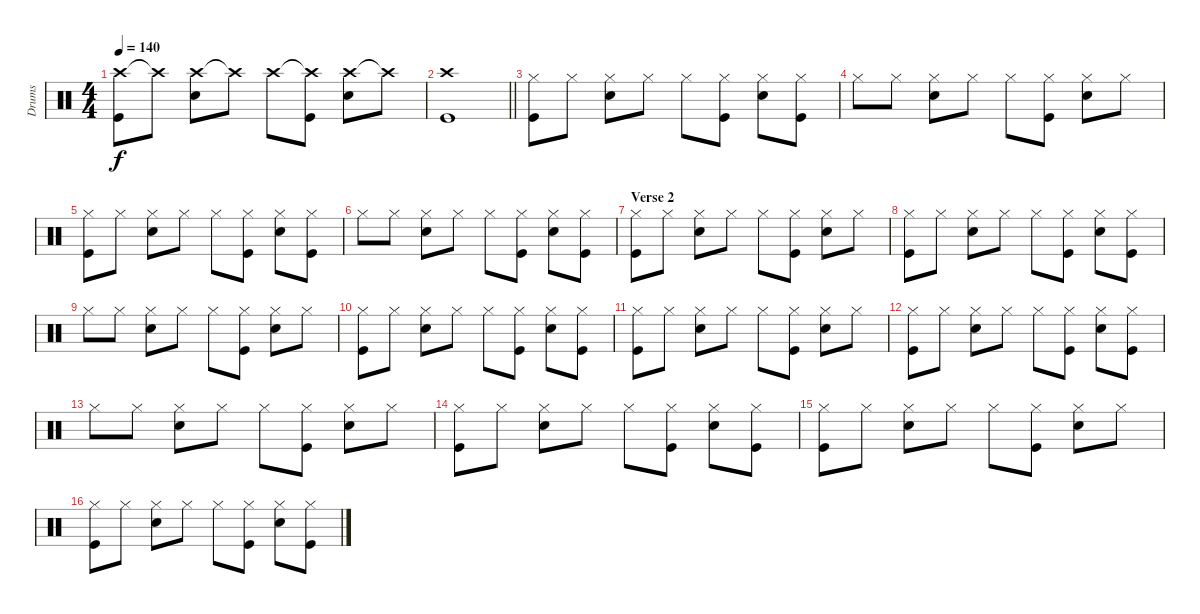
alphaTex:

\track ("Drums" "Drums") {instrument percussion}
\staff {score}
\articulation defaults
\ts (4 4)
\tempo 140
\clef neutral
\ks c
("Crash high (hit)" "Kick (hit)").8{dy f} "Crash high (hit)"{t}.8 ("Crash high (hit)" "Snare (hit) 2").8 "Crash high (hit)"{t}.8 "Crash high (hit)".8 ("Crash high (hit)"{t} "Kick (hit)").8 ("Crash high (hit)" "Snare (hit) 2").8 "Crash high (hit)"{t}.8 |
\barLineRight lightlight
("Crash high (hit)" "Kick (hit)").1 |
("Hi-Hat (closed)" "Kick (hit)").8 "Hi-Hat (closed)".8 ("Hi-Hat (closed)" "Electric Snare (hit)").8 "Hi-Hat (closed)".8 "Hi-Hat (closed)".8 ("Hi-Hat (closed)" "Kick (hit)").8 ("Hi-Hat (closed)" "Electric Snare (hit)").8 ("Hi-Hat (closed)" "Kick (hit)").8 |
"Hi-Hat (closed)".8 "Hi-Hat (closed)".8 ("Hi-Hat (closed)" "Electric Snare (hit)").8 "Hi-Hat (closed)".8 "Hi-Hat (closed)".8 ("Hi-Hat (closed)" "Kick (hit)").8 ("Hi-Hat (closed)" "Electric Snare (hit)").8 "Hi-Hat (closed)".8 |
("Hi-Hat (closed)" "Kick (hit)").8 "Hi-Hat (closed)".8 ("Hi-Hat (closed)" "Electric Snare (hit)").8 "Hi-Hat (closed)".8 "Hi-Hat (closed)".8 ("Hi-Hat (closed)" "Kick (hit)").8 ("Hi-Hat (closed)" "Electric Snare (hit)").8 ("Hi-Hat (closed)" "Kick (hit)").8 |
"Hi-Hat (closed)".8 "Hi-Hat (closed)".8 ("Hi-Hat (closed)" "Electric Snare (hit)").8 "Hi-Hat (closed)".8 "Hi-Hat (closed)".8 ("Hi-Hat (closed)" "Kick (hit)").8 ("Hi-Hat (closed)" "Snare (hit) 2").8 ("Hi-Hat (closed)" "Kick (hit)").8 |
\section ("" "Verse 2")
("Hi-Hat (closed)" "Kick (hit)").8 "Hi-Hat (closed)".8 ("Hi-Hat (closed)" "Snare (hit) 2").8 "Hi-Hat (closed)".8 "Hi-Hat (closed)".8 ("Hi-Hat (closed)" "Kick (hit)").8 ("Hi-Hat (closed)" "Snare (hit) 2").8 "Hi-Hat (closed)".8 |
("Hi-Hat (closed)" "Kick (hit)").8 "Hi-Hat (closed)".8 ("Hi-Hat (closed)" "Snare (hit) 2").8 "Hi-Hat (closed)".8 "Hi-Hat (closed)".8 ("Hi-Hat (closed)" "Kick (hit)").8 ("Hi-Hat (closed)" "Snare (hit) 2").8 ("Hi-Hat (closed)" "Kick (hit)").8 |
"Hi-Hat (closed)".8 "Hi-Hat (closed)".8 ("Hi-Hat (closed)" "Snare (hit) 2").8 "Hi-Hat (closed)".8 "Hi-Hat (closed)".8 ("Hi-Hat (closed)" "Kick (hit)").8 ("Hi-Hat (closed)" "Snare (hit) 2").8 "Hi-Hat (closed)".8 |
("Hi-Hat (closed)" "Kick (hit)").8 "Hi-Hat (closed)".8 ("Hi-Hat (closed)" "Snare (hit) 2").8 "Hi-Hat (closed)".8 "Hi-Hat (closed)".8 ("Hi-Hat (closed)" "Kick (hit)").8 ("Hi-Hat (closed)" "Snare (hit) 2").8 ("Hi-Hat (closed)" "Kick (hit)").8 |
("Hi-Hat (closed)" "Kick (hit)").8 "Hi-Hat (closed)".8 ("Hi-Hat (closed)" "Snare (hit) 2").8 "Hi-Hat (closed)".8 "Hi-Hat (closed)".8 ("Hi-Hat (closed)" "Kick (hit)").8 ("Hi-Hat (closed)" "Snare (hit) 2").8 "Hi-Hat (closed)".8 |
("Hi-Hat (closed)" "Kick (hit)").8 "Hi-Hat (closed)".8 ("Hi-Hat (closed)" "Snare (hit) 2").8 "Hi-Hat (closed)".8 "Hi-Hat (closed)".8 ("Hi-Hat (closed)" "Kick (hit)").8 ("Hi-Hat (closed)" "Snare (hit) 2").8 ("Hi-Hat (closed)" "Kick (hit)").8 |
"Hi-Hat (closed)".8 "Hi-Hat (closed)".8 ("Hi-Hat (closed)" "Snare (hit) 2").8 "Hi-Hat (closed)".8 "Hi-Hat (closed)".8 ("Hi-Hat (closed)" "Kick (hit)").8 ("Hi-Hat (closed)" "Snare (hit) 2").8 "Hi-Hat (closed)".8 |
("Hi-Hat (closed)" "Kick (hit)").8 "Hi-Hat (closed)".8 ("Hi-Hat (closed)" "Snare (hit) 2").8 "Hi-Hat (closed)".8 "Hi-Hat (closed)".8 ("Hi-Hat (closed)" "Kick (hit)").8 ("Hi-Hat (closed)" "Snare (hit) 2").8 ("Hi-Hat (closed)" "Kick (hit)").8 |
("Hi-Hat (closed)" "Kick (hit)").8 "Hi-Hat (closed)".8 ("Hi-Hat (closed)" "Snare (hit) 2").8 "Hi-Hat (closed)".8 "Hi-Hat (closed)".8 ("Hi-Hat (closed)" "Kick (hit)").8 ("Hi-Hat (closed)" "Snare (hit) 2").8 "Hi-Hat (closed)".8 |
("Hi-Hat (closed)" "Kick (hit)").8 "Hi-Hat (closed)".8 ("Hi-Hat (closed)" "Snare (hit) 2").8 "Hi-Hat (closed)".8 "Hi-Hat (closed)".8 ("Hi-Hat (closed)" "Kick (hit)").8 ("Hi-Hat (closed)" "Snare (hit) 2").8 ("Hi-Hat (closed)" "Kick (hit)").8
